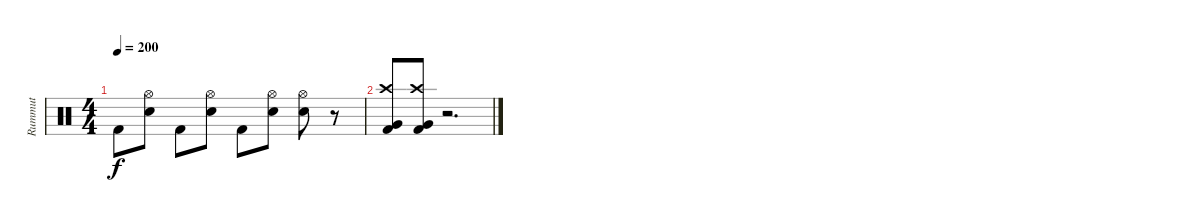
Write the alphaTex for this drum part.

\track ("Rummut" "Rummut") {instrument percussion}
\staff {score}
\articulation defaults
\ts (4 4)
\tempo 200
\clef neutral
\ks c "Kick (hit) 2".8{dy f}
("Hi-Hat (open)" "Electric Snare (hit)").8 "Kick (hit) 2".8 ("Hi-Hat (open)" "Electric Snare (hit)").8 "Kick (hit) 2".8 ("Hi-Hat (open)" "Electric Snare (hit)").8 ("Hi-Hat (open)" "Electric Snare (hit)").8 r.8 |
("Crash high (hit)" "Very Low Tom (hit)" "Kick (hit) 2").8 ("Crash high (hit)" "Very Low Tom (hit)" "Kick (hit) 2").8 r.2{d}
